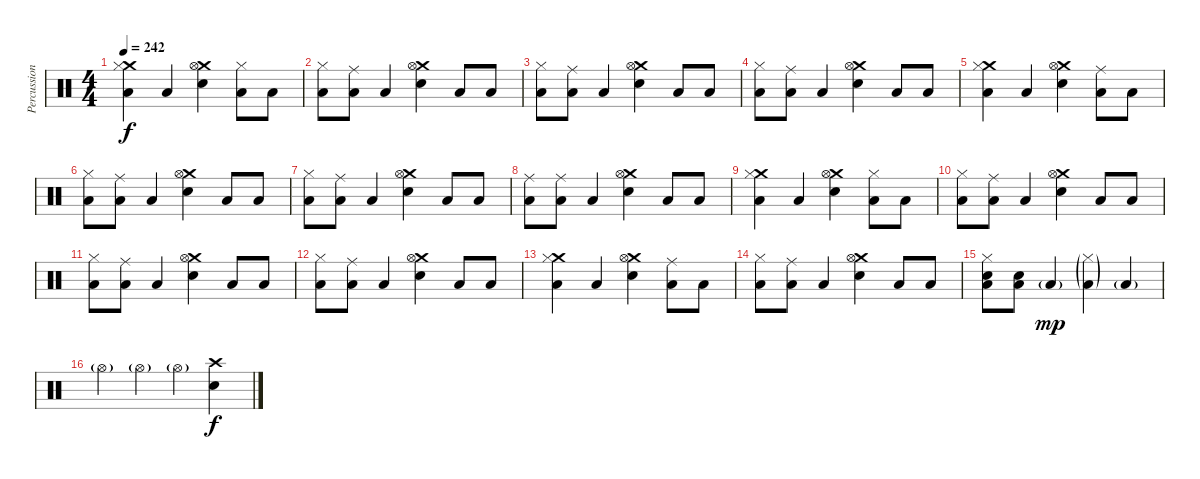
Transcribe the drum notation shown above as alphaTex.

\track ("Percussion" "Percussion") {instrument percussion}
\staff {score}
\articulation defaults
\ts (4 4)
\tempo 242
\clef neutral
\ks c
("Crash medium (hit)" "Hi-Hat (closed)" "Low Tom (hit)").4{dy f} "Low Tom (hit)".4 ("Crash medium (hit)" "Hi-Hat (open)" "Electric Snare (hit)").4 ("Hi-Hat (closed)" "Low Tom (hit)").8 "Low Tom (hit)".8 |
("Hi-Hat (closed)" "Low Tom (hit)").8 ("Ride (middle)" "Low Tom (hit)").8 "Low Tom (hit)".4 ("Crash medium (hit)" "Hi-Hat (open)" "Electric Snare (hit)").4 "Low Tom (hit)".8 "Low Tom (hit)".8 |
("Hi-Hat (closed)" "Low Tom (hit)").8 ("Ride (middle)" "Low Tom (hit)").8 "Low Tom (hit)".4 ("Crash medium (hit)" "Hi-Hat (open)" "Electric Snare (hit)").4 "Low Tom (hit)".8 "Low Tom (hit)".8 |
("Hi-Hat (closed)" "Low Tom (hit)").8 ("Ride (middle)" "Low Tom (hit)").8 "Low Tom (hit)".4 ("Crash medium (hit)" "Hi-Hat (open)" "Electric Snare (hit)").4 "Low Tom (hit)".8 "Low Tom (hit)".8 |
("Crash medium (hit)" "Hi-Hat (closed)" "Low Tom (hit)").4 "Low Tom (hit)".4 ("Crash medium (hit)" "Hi-Hat (open)" "Electric Snare (hit)").4 ("Ride (middle)" "Low Tom (hit)").8 "Low Tom (hit)".8 |
("Hi-Hat (closed)" "Low Tom (hit)").8 ("Ride (middle)" "Low Tom (hit)").8 "Low Tom (hit)".4 ("Crash medium (hit)" "Hi-Hat (open)" "Electric Snare (hit)").4 "Low Tom (hit)".8 "Low Tom (hit)".8 |
("Hi-Hat (closed)" "Low Tom (hit)").8 ("Ride (middle)" "Low Tom (hit)").8 "Low Tom (hit)".4 ("Crash medium (hit)" "Hi-Hat (open)" "Electric Snare (hit)").4 "Low Tom (hit)".8 "Low Tom (hit)".8 |
("Ride (middle)" "Low Tom (hit)").8 ("Ride (middle)" "Low Tom (hit)").8 "Low Tom (hit)".4 ("Crash medium (hit)" "Hi-Hat (open)" "Electric Snare (hit)").4 "Low Tom (hit)".8 "Low Tom (hit)".8 |
("Crash medium (hit)" "Hi-Hat (closed)" "Low Tom (hit)").4 "Low Tom (hit)".4 ("Crash medium (hit)" "Hi-Hat (open)" "Electric Snare (hit)").4 ("Hi-Hat (closed)" "Low Tom (hit)").8 "Low Tom (hit)".8 |
("Hi-Hat (closed)" "Low Tom (hit)").8 ("Ride (middle)" "Low Tom (hit)").8 "Low Tom (hit)".4 ("Crash medium (hit)" "Hi-Hat (open)" "Electric Snare (hit)").4 "Low Tom (hit)".8 "Low Tom (hit)".8 |
("Hi-Hat (closed)" "Low Tom (hit)").8 ("Ride (middle)" "Low Tom (hit)").8 "Low Tom (hit)".4 ("Crash medium (hit)" "Hi-Hat (open)" "Electric Snare (hit)").4 "Low Tom (hit)".8 "Low Tom (hit)".8 |
("Hi-Hat (closed)" "Low Tom (hit)").8 ("Ride (middle)" "Low Tom (hit)").8 "Low Tom (hit)".4 ("Crash medium (hit)" "Hi-Hat (open)" "Electric Snare (hit)").4 "Low Tom (hit)".8 "Low Tom (hit)".8 |
("Crash medium (hit)" "Hi-Hat (closed)" "Low Tom (hit)").4 "Low Tom (hit)".4 ("Crash medium (hit)" "Hi-Hat (open)" "Electric Snare (hit)").4 ("Ride (middle)" "Low Tom (hit)").8 "Low Tom (hit)".8 |
("Hi-Hat (closed)" "Low Tom (hit)").8 ("Ride (middle)" "Low Tom (hit)").8 "Low Tom (hit)".4 ("Crash medium (hit)" "Hi-Hat (open)" "Electric Snare (hit)").4 "Low Tom (hit)".8 "Low Tom (hit)".8 |
("Hi-Hat (closed)" "Electric Snare (hit)" "Low Tom (hit)").8 ("Low Floor Tom (hit)" "Electric Snare (hit)").8 "Low Tom (hit)"{g}.4{dy mp} ("Hi-Hat (closed)"{g} "Low Tom (hit)"{g}).4 "Low Tom (hit)"{g}.4 |
"Hi-Hat (open)"{g}.4 "Hi-Hat (open)"{g}.4 "Hi-Hat (open)"{g}.4 ("Electric Snare (hit)" "Crash high (hit)").4{dy f}
